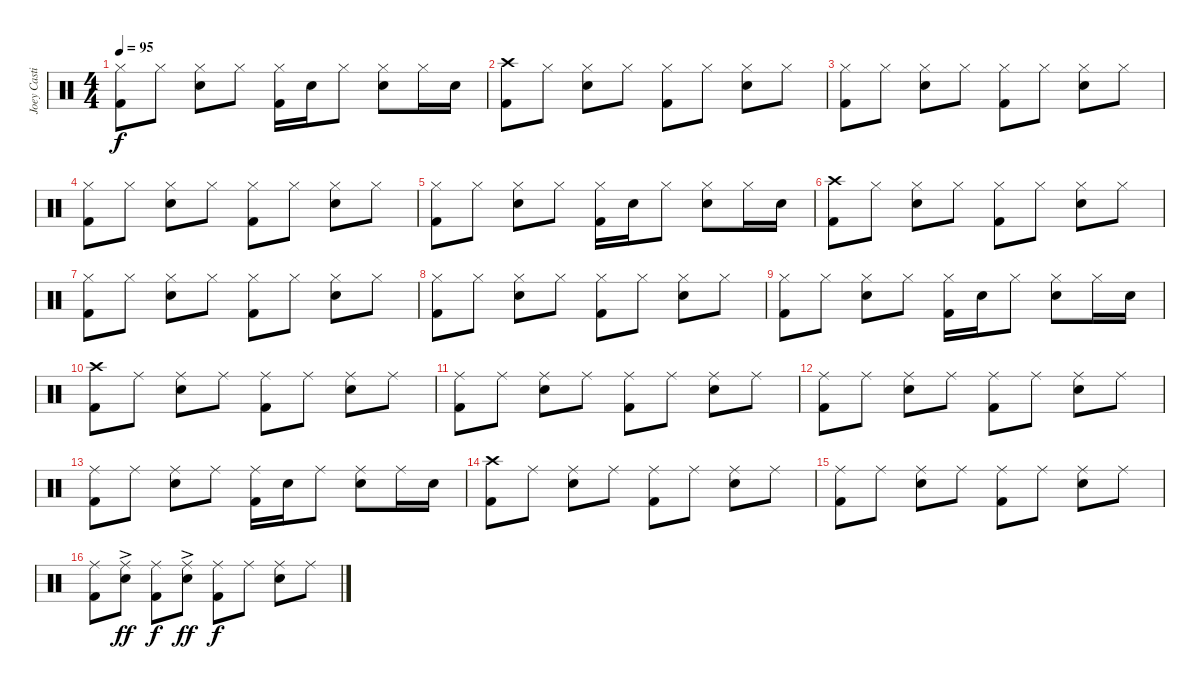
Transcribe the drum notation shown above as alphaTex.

\track ("Joey Castillo" "Joey Casti") {instrument percussion}
\staff {score}
\articulation defaults
\ts (4 4)
\tempo 95
\clef neutral
\ks c
("Hi-Hat (closed)" "Kick (hit) 2").8{dy f} "Hi-Hat (closed)".8 ("Hi-Hat (closed)" "Snare (hit) 2").8 "Hi-Hat (closed)".8 ("Hi-Hat (closed)" "Kick (hit) 2").16 "Snare (hit) 2".16 "Hi-Hat (closed)".8 ("Hi-Hat (closed)" "Snare (hit) 2").8 "Hi-Hat (closed)".16 "Snare (hit) 2".16 |
("Crash high (hit)" "Kick (hit) 2").8 "Hi-Hat (closed)".8 ("Hi-Hat (closed)" "Snare (hit) 2").8 "Hi-Hat (closed)".8 ("Hi-Hat (closed)" "Kick (hit) 2").8 "Hi-Hat (closed)".8 ("Hi-Hat (closed)" "Snare (hit) 2").8 "Hi-Hat (closed)".8 |
("Hi-Hat (closed)" "Kick (hit) 2").8 "Hi-Hat (closed)".8 ("Hi-Hat (closed)" "Snare (hit) 2").8 "Hi-Hat (closed)".8 ("Hi-Hat (closed)" "Kick (hit) 2").8 "Hi-Hat (closed)".8 ("Hi-Hat (closed)" "Snare (hit) 2").8 "Hi-Hat (closed)".8 |
("Hi-Hat (closed)" "Kick (hit) 2").8 "Hi-Hat (closed)".8 ("Hi-Hat (closed)" "Snare (hit) 2").8 "Hi-Hat (closed)".8 ("Hi-Hat (closed)" "Kick (hit) 2").8 "Hi-Hat (closed)".8 ("Hi-Hat (closed)" "Snare (hit) 2").8 "Hi-Hat (closed)".8 |
("Hi-Hat (closed)" "Kick (hit) 2").8 "Hi-Hat (closed)".8 ("Hi-Hat (closed)" "Snare (hit) 2").8 "Hi-Hat (closed)".8 ("Hi-Hat (closed)" "Kick (hit) 2").16 "Snare (hit) 2".16 "Hi-Hat (closed)".8 ("Hi-Hat (closed)" "Snare (hit) 2").8 "Hi-Hat (closed)".16 "Snare (hit) 2".16 |
("Crash high (hit)" "Kick (hit) 2").8 "Hi-Hat (closed)".8 ("Hi-Hat (closed)" "Snare (hit) 2").8 "Hi-Hat (closed)".8 ("Hi-Hat (closed)" "Kick (hit) 2").8 "Hi-Hat (closed)".8 ("Hi-Hat (closed)" "Snare (hit) 2").8 "Hi-Hat (closed)".8 |
("Hi-Hat (closed)" "Kick (hit) 2").8 "Hi-Hat (closed)".8 ("Hi-Hat (closed)" "Snare (hit) 2").8 "Hi-Hat (closed)".8 ("Hi-Hat (closed)" "Kick (hit) 2").8 "Hi-Hat (closed)".8 ("Hi-Hat (closed)" "Snare (hit) 2").8 "Hi-Hat (closed)".8 |
("Hi-Hat (closed)" "Kick (hit) 2").8 "Hi-Hat (closed)".8 ("Hi-Hat (closed)" "Snare (hit) 2").8 "Hi-Hat (closed)".8 ("Hi-Hat (closed)" "Kick (hit) 2").8 "Hi-Hat (closed)".8 ("Hi-Hat (closed)" "Snare (hit) 2").8 "Hi-Hat (closed)".8 |
("Hi-Hat (closed)" "Kick (hit) 2").8 "Hi-Hat (closed)".8 ("Hi-Hat (closed)" "Snare (hit) 2").8 "Hi-Hat (closed)".8 ("Hi-Hat (closed)" "Kick (hit) 2").16 "Snare (hit) 2".16 "Hi-Hat (closed)".8 ("Hi-Hat (closed)" "Snare (hit) 2").8 "Hi-Hat (closed)".16 "Snare (hit) 2".16 |
("Crash high (hit)" "Kick (hit) 2").8 "Ride (middle)".8 ("Ride (middle)" "Snare (hit) 2").8 "Ride (middle)".8 ("Ride (middle)" "Kick (hit) 2").8 "Ride (middle)".8 ("Ride (middle)" "Snare (hit) 2").8 "Ride (middle)".8 |
("Ride (middle)" "Kick (hit) 2").8 "Ride (middle)".8 ("Ride (middle)" "Snare (hit) 2").8 "Ride (middle)".8 ("Ride (middle)" "Kick (hit) 2").8 "Ride (middle)".8 ("Ride (middle)" "Snare (hit) 2").8 "Ride (middle)".8 |
("Ride (middle)" "Kick (hit) 2").8 "Ride (middle)".8 ("Ride (middle)" "Snare (hit) 2").8 "Ride (middle)".8 ("Ride (middle)" "Kick (hit) 2").8 "Ride (middle)".8 ("Ride (middle)" "Snare (hit) 2").8 "Ride (middle)".8 |
("Ride (middle)" "Kick (hit) 2").8 "Ride (middle)".8 ("Ride (middle)" "Snare (hit) 2").8 "Ride (middle)".8 ("Ride (middle)" "Kick (hit) 2").16 "Snare (hit) 2".16 "Ride (middle)".8 ("Ride (middle)" "Snare (hit) 2").8 "Ride (middle)".16 "Snare (hit) 2".16 |
("Crash high (hit)" "Kick (hit) 2").8 "Ride (middle)".8 ("Ride (middle)" "Snare (hit) 2").8 "Ride (middle)".8 ("Ride (middle)" "Kick (hit) 2").8 "Ride (middle)".8 ("Ride (middle)" "Snare (hit) 2").8 "Ride (middle)".8 |
("Ride (middle)" "Kick (hit) 2").8 "Ride (middle)".8 ("Ride (middle)" "Snare (hit) 2").8 "Ride (middle)".8 ("Ride (middle)" "Kick (hit) 2").8 "Ride (middle)".8 ("Ride (middle)" "Snare (hit) 2").8 "Ride (middle)".8 |
("Ride (middle)" "Kick (hit) 2").8 ("Ride (middle)" "Snare (hit) 2"{ac}).8{dy ff} ("Ride (middle)" "Kick (hit) 2").8{dy f} ("Ride (middle)" "Snare (hit) 2"{ac}).8{dy ff} ("Ride (middle)" "Kick (hit) 2").8{dy f} "Ride (middle)".8 ("Ride (middle)" "Snare (hit) 2").8 "Ride (middle)".8
